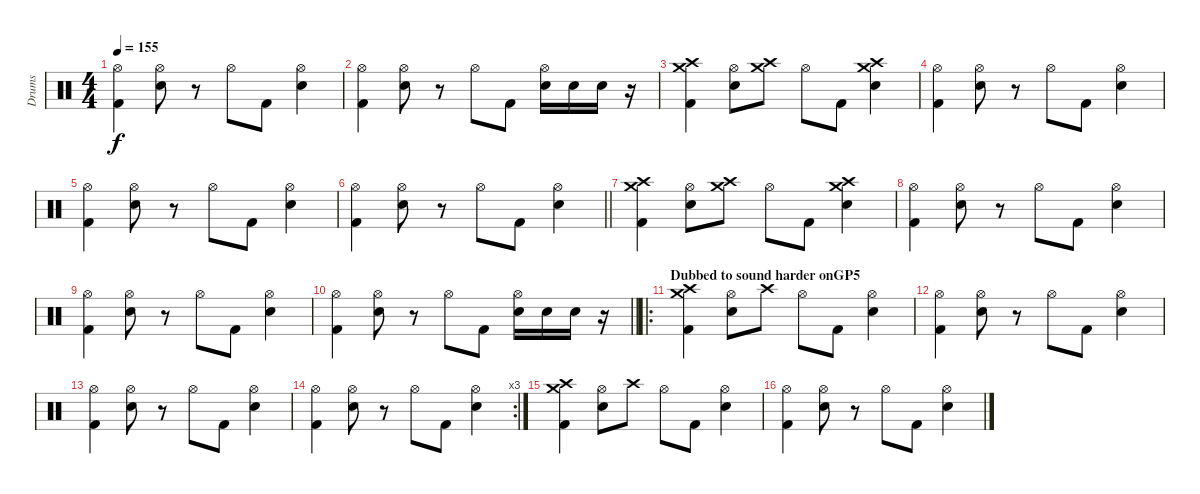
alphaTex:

\track ("Drums" "Drums") {instrument percussion}
\staff {score}
\articulation defaults
\ts (4 4)
\tempo 155
\clef neutral
\ks c
("Hi-Hat (open)" "Kick (hit) 2").4{dy f} ("Hi-Hat (open)" "Electric Snare (hit)").8 r.8 "Hi-Hat (open)".8 "Kick (hit) 2".8 ("Hi-Hat (open)" "Electric Snare (hit)").4 |
("Hi-Hat (open)" "Kick (hit) 2").4 ("Hi-Hat (open)" "Electric Snare (hit)").8 r.8 "Hi-Hat (open)".8 "Kick (hit) 2".8 ("Hi-Hat (open)" "Electric Snare (hit)").16 "Electric Snare (hit)".16 "Electric Snare (hit)".16 r.16 |
("Crash high (hit)" "Crash medium (hit)" "Kick (hit) 2").4 ("Hi-Hat (open)" "Electric Snare (hit)").8 ("Crash high (hit)" "Crash medium (hit)").8 "Hi-Hat (open)".8 "Kick (hit) 2".8 ("Crash high (hit)" "Crash medium (hit)" "Electric Snare (hit)").4 |
("Hi-Hat (open)" "Kick (hit) 2").4 ("Hi-Hat (open)" "Electric Snare (hit)").8 r.8 "Hi-Hat (open)".8 "Kick (hit) 2".8 ("Hi-Hat (open)" "Electric Snare (hit)").4 |
("Hi-Hat (open)" "Kick (hit) 2").4 ("Hi-Hat (open)" "Electric Snare (hit)").8 r.8 "Hi-Hat (open)".8 "Kick (hit) 2".8 ("Hi-Hat (open)" "Electric Snare (hit)").4 |
\barLineRight lightlight
("Hi-Hat (open)" "Kick (hit) 2").4 ("Hi-Hat (open)" "Electric Snare (hit)").8 r.8 "Hi-Hat (open)".8 "Kick (hit) 2".8 ("Hi-Hat (open)" "Electric Snare (hit)").4 |
("Crash high (hit)" "Crash medium (hit)" "Kick (hit) 2").4 ("Hi-Hat (open)" "Electric Snare (hit)").8 ("Crash high (hit)" "Crash medium (hit)").8 "Hi-Hat (open)".8 "Kick (hit) 2".8 ("Crash high (hit)" "Crash medium (hit)" "Electric Snare (hit)").4 |
("Hi-Hat (open)" "Kick (hit) 2").4 ("Hi-Hat (open)" "Electric Snare (hit)").8 r.8 "Hi-Hat (open)".8 "Kick (hit) 2".8 ("Hi-Hat (open)" "Electric Snare (hit)").4 |
("Hi-Hat (open)" "Kick (hit) 2").4 ("Hi-Hat (open)" "Electric Snare (hit)").8 r.8 "Hi-Hat (open)".8 "Kick (hit) 2".8 ("Hi-Hat (open)" "Electric Snare (hit)").4 |
\barLineRight lightlight
("Hi-Hat (open)" "Kick (hit) 2").4 ("Hi-Hat (open)" "Electric Snare (hit)").8 r.8 "Hi-Hat (open)".8 "Kick (hit) 2".8 ("Hi-Hat (open)" "Electric Snare (hit)").16 "Electric Snare (hit)".16 "Electric Snare (hit)".16 r.16 |
\ro
\section ("" "Dubbed to sound harder onGP5")
("Crash medium (hit)" "Crash high (hit)" "Kick (hit) 2").4 ("Hi-Hat (open)" "Electric Snare (hit)").8 "Crash high (hit)".8 "Hi-Hat (open)".8 "Kick (hit) 2".8 ("Hi-Hat (open)" "Electric Snare (hit)").4 |
("Hi-Hat (open)" "Kick (hit) 2").4 ("Hi-Hat (open)" "Electric Snare (hit)").8 r.8 "Hi-Hat (open)".8 "Kick (hit) 2".8 ("Hi-Hat (open)" "Electric Snare (hit)").4 |
("Hi-Hat (open)" "Kick (hit) 2").4 ("Hi-Hat (open)" "Electric Snare (hit)").8 r.8 "Hi-Hat (open)".8 "Kick (hit) 2".8 ("Hi-Hat (open)" "Electric Snare (hit)").4 |
\rc 3
("Hi-Hat (open)" "Kick (hit) 2").4 ("Hi-Hat (open)" "Electric Snare (hit)").8 r.8 "Hi-Hat (open)".8 "Kick (hit) 2".8 ("Hi-Hat (open)" "Electric Snare (hit)").4 |
("Crash medium (hit)" "Crash high (hit)" "Kick (hit) 2").4 ("Hi-Hat (open)" "Electric Snare (hit)").8 "Crash high (hit)".8 "Hi-Hat (open)".8 "Kick (hit) 2".8 ("Hi-Hat (open)" "Electric Snare (hit)").4 |
("Hi-Hat (open)" "Kick (hit) 2").4 ("Hi-Hat (open)" "Electric Snare (hit)").8 r.8 "Hi-Hat (open)".8 "Kick (hit) 2".8 ("Hi-Hat (open)" "Electric Snare (hit)").4
